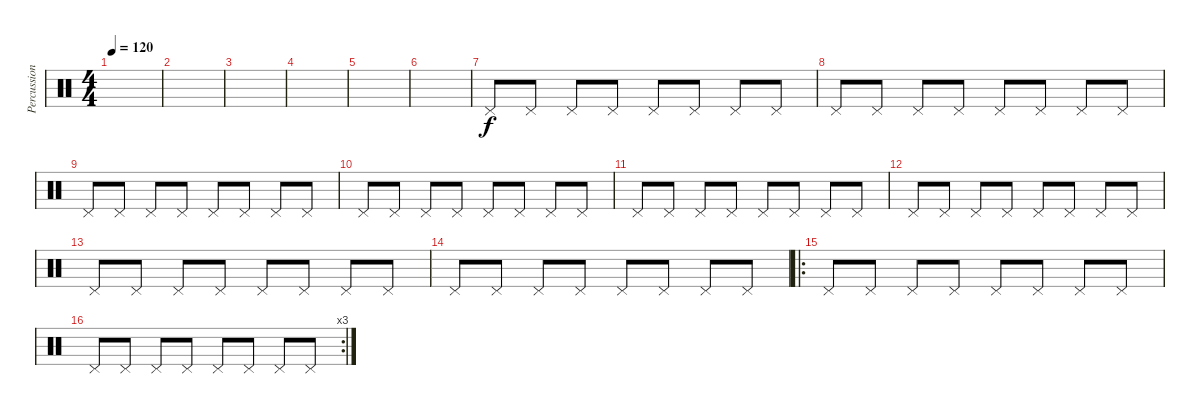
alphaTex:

\track ("Percussions" "Percussion") {instrument percussion}
\staff {score}
\articulation defaults
\ts (4 4)
\tempo 120
\clef neutral
\ks c
|
|
|
|
|
|
"Pedal Hi-Hat (hit)".8 "Pedal Hi-Hat (hit)".8 "Pedal Hi-Hat (hit)".8 "Pedal Hi-Hat (hit)".8 "Pedal Hi-Hat (hit)".8 "Pedal Hi-Hat (hit)".8 "Pedal Hi-Hat (hit)".8 "Pedal Hi-Hat (hit)".8 |
"Pedal Hi-Hat (hit)".8 "Pedal Hi-Hat (hit)".8 "Pedal Hi-Hat (hit)".8 "Pedal Hi-Hat (hit)".8 "Pedal Hi-Hat (hit)".8 "Pedal Hi-Hat (hit)".8 "Pedal Hi-Hat (hit)".8 "Pedal Hi-Hat (hit)".8 |
"Pedal Hi-Hat (hit)".8 "Pedal Hi-Hat (hit)".8 "Pedal Hi-Hat (hit)".8 "Pedal Hi-Hat (hit)".8 "Pedal Hi-Hat (hit)".8 "Pedal Hi-Hat (hit)".8 "Pedal Hi-Hat (hit)".8 "Pedal Hi-Hat (hit)".8 |
"Pedal Hi-Hat (hit)".8 "Pedal Hi-Hat (hit)".8 "Pedal Hi-Hat (hit)".8 "Pedal Hi-Hat (hit)".8 "Pedal Hi-Hat (hit)".8 "Pedal Hi-Hat (hit)".8 "Pedal Hi-Hat (hit)".8 "Pedal Hi-Hat (hit)".8 |
"Pedal Hi-Hat (hit)".8 "Pedal Hi-Hat (hit)".8 "Pedal Hi-Hat (hit)".8 "Pedal Hi-Hat (hit)".8 "Pedal Hi-Hat (hit)".8 "Pedal Hi-Hat (hit)".8 "Pedal Hi-Hat (hit)".8 "Pedal Hi-Hat (hit)".8 |
"Pedal Hi-Hat (hit)".8 "Pedal Hi-Hat (hit)".8 "Pedal Hi-Hat (hit)".8 "Pedal Hi-Hat (hit)".8 "Pedal Hi-Hat (hit)".8 "Pedal Hi-Hat (hit)".8 "Pedal Hi-Hat (hit)".8 "Pedal Hi-Hat (hit)".8 |
"Pedal Hi-Hat (hit)".8 "Pedal Hi-Hat (hit)".8 "Pedal Hi-Hat (hit)".8 "Pedal Hi-Hat (hit)".8 "Pedal Hi-Hat (hit)".8 "Pedal Hi-Hat (hit)".8 "Pedal Hi-Hat (hit)".8 "Pedal Hi-Hat (hit)".8 |
"Pedal Hi-Hat (hit)".8 "Pedal Hi-Hat (hit)".8 "Pedal Hi-Hat (hit)".8 "Pedal Hi-Hat (hit)".8 "Pedal Hi-Hat (hit)".8 "Pedal Hi-Hat (hit)".8 "Pedal Hi-Hat (hit)".8 "Pedal Hi-Hat (hit)".8 |
\ro "Pedal Hi-Hat (hit)".8 "Pedal Hi-Hat (hit)".8 "Pedal Hi-Hat (hit)".8 "Pedal Hi-Hat (hit)".8 "Pedal Hi-Hat (hit)".8 "Pedal Hi-Hat (hit)".8 "Pedal Hi-Hat (hit)".8 "Pedal Hi-Hat (hit)".8
|
\rc 3 "Pedal Hi-Hat (hit)".8 "Pedal Hi-Hat (hit)".8 "Pedal Hi-Hat (hit)".8 "Pedal Hi-Hat (hit)".8 "Pedal Hi-Hat (hit)".8 "Pedal Hi-Hat (hit)".8 "Pedal Hi-Hat (hit)".8 "Pedal Hi-Hat (hit)".8
